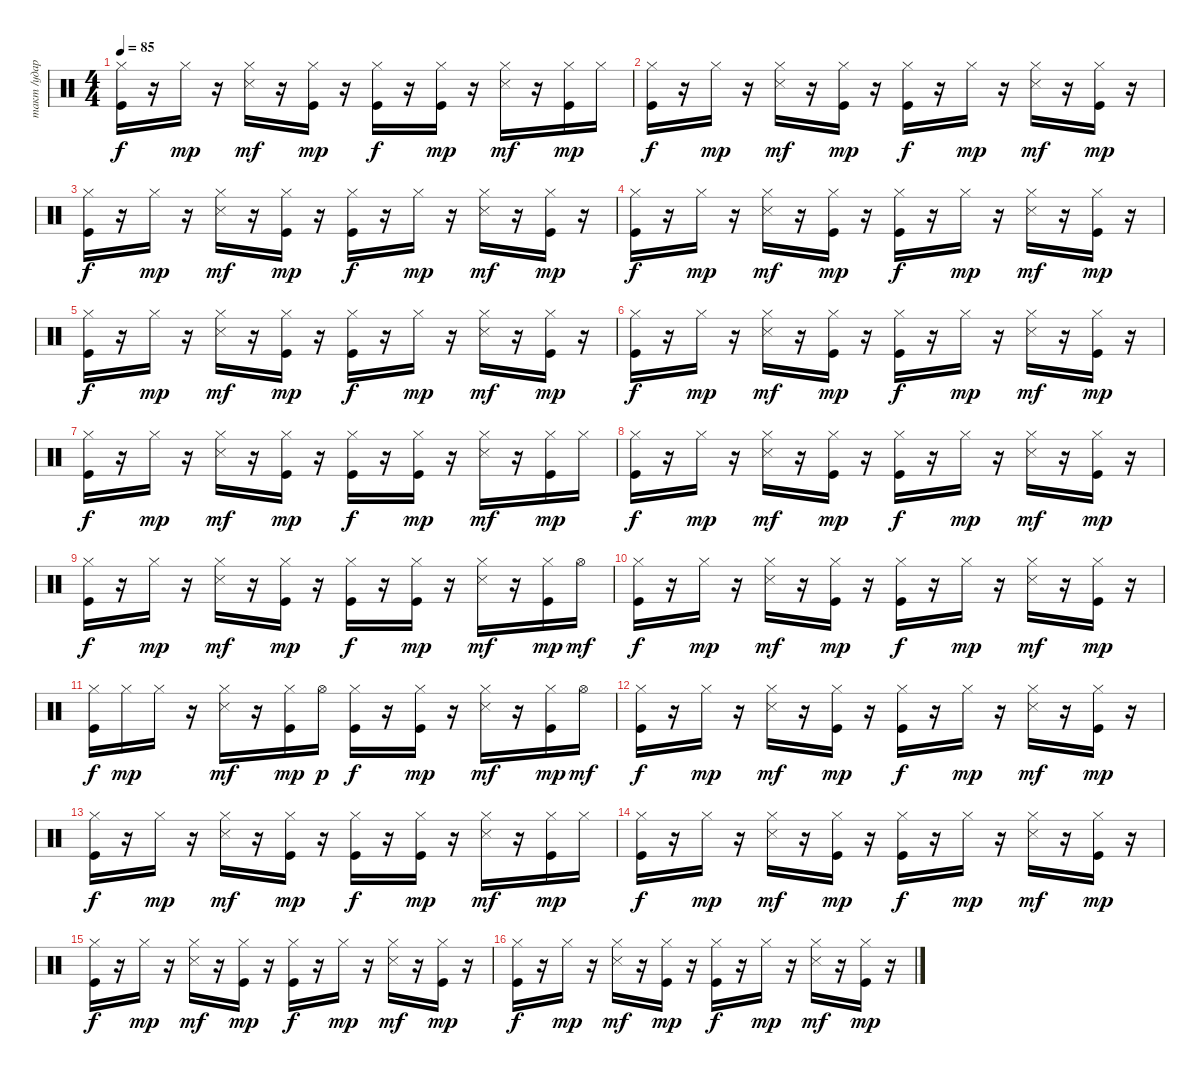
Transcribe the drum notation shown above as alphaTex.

\track ("такт /ударные/" "такт /удар") {instrument percussion}
\staff {score}
\articulation defaults
\ts (4 4)
\tempo 85
\clef neutral
\ks c
("Kick (hit)" "Hi-Hat (closed)").16{dy f} r.16 "Hi-Hat (closed)".16{dy mp} r.16 ("Hi-Hat (closed)" "Snare (side stick) 3").16{dy mf} r.16 ("Kick (hit)" "Hi-Hat (closed)").16{dy mp} r.16 ("Kick (hit)" "Hi-Hat (closed)").16{dy f} r.16 ("Kick (hit)" "Hi-Hat (closed)").16{dy mp} r.16 ("Hi-Hat (closed)" "Snare (side stick) 3").16{dy mf} r.16 ("Kick (hit)" "Hi-Hat (closed)").16{dy mp} "Hi-Hat (closed)".16 |
("Kick (hit)" "Hi-Hat (closed)").16{dy f} r.16 "Hi-Hat (closed)".16{dy mp} r.16 ("Hi-Hat (closed)" "Snare (side stick) 3").16{dy mf} r.16 ("Kick (hit)" "Hi-Hat (closed)").16{dy mp} r.16 ("Kick (hit)" "Hi-Hat (closed)").16{dy f} r.16 "Hi-Hat (closed)".16{dy mp} r.16 ("Hi-Hat (closed)" "Snare (side stick) 3").16{dy mf} r.16 ("Kick (hit)" "Hi-Hat (closed)").16{dy mp} r.16 |
("Kick (hit)" "Hi-Hat (closed)").16{dy f} r.16 "Hi-Hat (closed)".16{dy mp} r.16 ("Hi-Hat (closed)" "Snare (side stick) 3").16{dy mf} r.16 ("Kick (hit)" "Hi-Hat (closed)").16{dy mp} r.16 ("Kick (hit)" "Hi-Hat (closed)").16{dy f} r.16 "Hi-Hat (closed)".16{dy mp} r.16 ("Hi-Hat (closed)" "Snare (side stick) 3").16{dy mf} r.16 ("Kick (hit)" "Hi-Hat (closed)").16{dy mp} r.16 |
("Kick (hit)" "Hi-Hat (closed)").16{dy f} r.16 "Hi-Hat (closed)".16{dy mp} r.16 ("Hi-Hat (closed)" "Snare (side stick) 3").16{dy mf} r.16 ("Kick (hit)" "Hi-Hat (closed)").16{dy mp} r.16 ("Kick (hit)" "Hi-Hat (closed)").16{dy f} r.16 "Hi-Hat (closed)".16{dy mp} r.16 ("Hi-Hat (closed)" "Snare (side stick) 3").16{dy mf} r.16 ("Kick (hit)" "Hi-Hat (closed)").16{dy mp} r.16 |
("Kick (hit)" "Hi-Hat (closed)").16{dy f} r.16 "Hi-Hat (closed)".16{dy mp} r.16 ("Hi-Hat (closed)" "Snare (side stick) 3").16{dy mf} r.16 ("Kick (hit)" "Hi-Hat (closed)").16{dy mp} r.16 ("Kick (hit)" "Hi-Hat (closed)").16{dy f} r.16 "Hi-Hat (closed)".16{dy mp} r.16 ("Hi-Hat (closed)" "Snare (side stick) 3").16{dy mf} r.16 ("Kick (hit)" "Hi-Hat (closed)").16{dy mp} r.16 |
("Kick (hit)" "Hi-Hat (closed)").16{dy f} r.16 "Hi-Hat (closed)".16{dy mp} r.16 ("Hi-Hat (closed)" "Snare (side stick) 3").16{dy mf} r.16 ("Kick (hit)" "Hi-Hat (closed)").16{dy mp} r.16 ("Kick (hit)" "Hi-Hat (closed)").16{dy f} r.16 "Hi-Hat (closed)".16{dy mp} r.16 ("Hi-Hat (closed)" "Snare (side stick) 3").16{dy mf} r.16 ("Kick (hit)" "Hi-Hat (closed)").16{dy mp} r.16 |
("Kick (hit)" "Hi-Hat (closed)").16{dy f} r.16 "Hi-Hat (closed)".16{dy mp} r.16 ("Hi-Hat (closed)" "Snare (side stick) 3").16{dy mf} r.16 ("Kick (hit)" "Hi-Hat (closed)").16{dy mp} r.16 ("Kick (hit)" "Hi-Hat (closed)").16{dy f} r.16 ("Kick (hit)" "Hi-Hat (closed)").16{dy mp} r.16 ("Hi-Hat (closed)" "Snare (side stick) 3").16{dy mf} r.16 ("Kick (hit)" "Hi-Hat (closed)").16{dy mp} "Hi-Hat (closed)".16 |
("Kick (hit)" "Hi-Hat (closed)").16{dy f} r.16 "Hi-Hat (closed)".16{dy mp} r.16 ("Hi-Hat (closed)" "Snare (side stick) 3").16{dy mf} r.16 ("Kick (hit)" "Hi-Hat (closed)").16{dy mp} r.16 ("Kick (hit)" "Hi-Hat (closed)").16{dy f} r.16 "Hi-Hat (closed)".16{dy mp} r.16 ("Hi-Hat (closed)" "Snare (side stick) 3").16{dy mf} r.16 ("Kick (hit)" "Hi-Hat (closed)").16{dy mp} r.16 |
("Kick (hit)" "Hi-Hat (closed)").16{dy f} r.16 "Hi-Hat (closed)".16{dy mp} r.16 ("Hi-Hat (closed)" "Snare (side stick) 3").16{dy mf} r.16 ("Kick (hit)" "Hi-Hat (closed)").16{dy mp} r.16 ("Kick (hit)" "Hi-Hat (closed)").16{dy f} r.16 ("Kick (hit)" "Hi-Hat (closed)").16{dy mp} r.16 ("Hi-Hat (closed)" "Snare (side stick) 3").16{dy mf} r.16 ("Kick (hit)" "Hi-Hat (closed)").16{dy mp} "Hi-Hat (open)".16{dy mf} |
("Kick (hit)" "Hi-Hat (closed)").16{dy f} r.16 "Hi-Hat (closed)".16{dy mp} r.16 ("Hi-Hat (closed)" "Snare (side stick) 3").16{dy mf} r.16 ("Kick (hit)" "Hi-Hat (closed)").16{dy mp} r.16 ("Kick (hit)" "Hi-Hat (closed)").16{dy f} r.16 "Hi-Hat (closed)".16{dy mp} r.16 ("Hi-Hat (closed)" "Snare (side stick) 3").16{dy mf} r.16 ("Kick (hit)" "Hi-Hat (closed)").16{dy mp} r.16 |
("Kick (hit)" "Hi-Hat (closed)").16{dy f} "Hi-Hat (closed)".16{dy mp} "Hi-Hat (closed)".16 r.16 ("Hi-Hat (closed)" "Snare (side stick) 3").16{dy mf} r.16 ("Kick (hit)" "Hi-Hat (closed)").16{dy mp} "Hi-Hat (open)".16{dy p} ("Kick (hit)" "Hi-Hat (closed)").16{dy f} r.16 ("Kick (hit)" "Hi-Hat (closed)").16{dy mp} r.16 ("Hi-Hat (closed)" "Snare (side stick) 3").16{dy mf} r.16 ("Kick (hit)" "Hi-Hat (closed)").16{dy mp} "Hi-Hat (open)".16{dy mf} |
("Kick (hit)" "Hi-Hat (closed)").16{dy f} r.16 "Hi-Hat (closed)".16{dy mp} r.16 ("Hi-Hat (closed)" "Snare (side stick) 3").16{dy mf} r.16 ("Kick (hit)" "Hi-Hat (closed)").16{dy mp} r.16 ("Kick (hit)" "Hi-Hat (closed)").16{dy f} r.16 "Hi-Hat (closed)".16{dy mp} r.16 ("Hi-Hat (closed)" "Snare (side stick) 3").16{dy mf} r.16 ("Kick (hit)" "Hi-Hat (closed)").16{dy mp} r.16 |
("Kick (hit)" "Hi-Hat (closed)").16{dy f} r.16 "Hi-Hat (closed)".16{dy mp} r.16 ("Hi-Hat (closed)" "Snare (side stick) 3").16{dy mf} r.16 ("Kick (hit)" "Hi-Hat (closed)").16{dy mp} r.16 ("Kick (hit)" "Hi-Hat (closed)").16{dy f} r.16 ("Kick (hit)" "Hi-Hat (closed)").16{dy mp} r.16 ("Hi-Hat (closed)" "Snare (side stick) 3").16{dy mf} r.16 ("Kick (hit)" "Hi-Hat (closed)").16{dy mp} "Hi-Hat (closed)".16 |
("Kick (hit)" "Hi-Hat (closed)").16{dy f} r.16 "Hi-Hat (closed)".16{dy mp} r.16 ("Hi-Hat (closed)" "Snare (side stick) 3").16{dy mf} r.16 ("Kick (hit)" "Hi-Hat (closed)").16{dy mp} r.16 ("Kick (hit)" "Hi-Hat (closed)").16{dy f} r.16 "Hi-Hat (closed)".16{dy mp} r.16 ("Hi-Hat (closed)" "Snare (side stick) 3").16{dy mf} r.16 ("Kick (hit)" "Hi-Hat (closed)").16{dy mp} r.16 |
("Kick (hit)" "Hi-Hat (closed)").16{dy f} r.16 "Hi-Hat (closed)".16{dy mp} r.16 ("Hi-Hat (closed)" "Snare (side stick) 3").16{dy mf} r.16 ("Kick (hit)" "Hi-Hat (closed)").16{dy mp} r.16 ("Kick (hit)" "Hi-Hat (closed)").16{dy f} r.16 "Hi-Hat (closed)".16{dy mp} r.16 ("Hi-Hat (closed)" "Snare (side stick) 3").16{dy mf} r.16 ("Kick (hit)" "Hi-Hat (closed)").16{dy mp} r.16 |
("Kick (hit)" "Hi-Hat (closed)").16{dy f} r.16 "Hi-Hat (closed)".16{dy mp} r.16 ("Hi-Hat (closed)" "Snare (side stick) 3").16{dy mf} r.16 ("Kick (hit)" "Hi-Hat (closed)").16{dy mp} r.16 ("Kick (hit)" "Hi-Hat (closed)").16{dy f} r.16 "Hi-Hat (closed)".16{dy mp} r.16 ("Hi-Hat (closed)" "Snare (side stick) 3").16{dy mf} r.16 ("Kick (hit)" "Hi-Hat (closed)").16{dy mp} r.16
